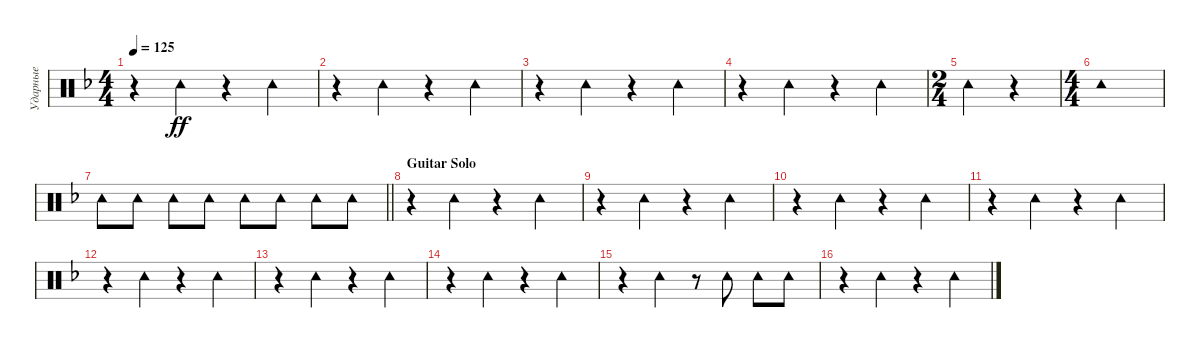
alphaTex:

\track ("Ударные" "Ударные") {instrument percussion}
\staff {score}
\articulation defaults
\ts (4 4)
\tempo 125
\clef neutral
\ks dminor
r.4{dy ff} "Tambourine (hit)".4 r.4 "Tambourine (hit)".4 |
r.4 "Tambourine (hit)".4 r.4 "Tambourine (hit)".4 |
r.4 "Tambourine (hit)".4 r.4 "Tambourine (hit)".4 |
r.4 "Tambourine (hit)".4 r.4 "Tambourine (hit)".4 |
\ts (2 4)
"Tambourine (hit)".4 r.4 |
\ts (4 4)
"Tambourine (hit)".1 |
\barLineRight lightlight "Tambourine (hit)".8 "Tambourine (hit)".8 "Tambourine (hit)".8 "Tambourine (hit)".8 "Tambourine (hit)".8 "Tambourine (hit)".8 "Tambourine (hit)".8 "Tambourine (hit)".8
|
\section ("" "Guitar Solo")
r.4 "Tambourine (hit)".4 r.4 "Tambourine (hit)".4 |
r.4 "Tambourine (hit)".4 r.4 "Tambourine (hit)".4 |
r.4 "Tambourine (hit)".4 r.4 "Tambourine (hit)".4 |
r.4 "Tambourine (hit)".4 r.4 "Tambourine (hit)".4 |
r.4 "Tambourine (hit)".4 r.4 "Tambourine (hit)".4 |
r.4 "Tambourine (hit)".4 r.4 "Tambourine (hit)".4 |
r.4 "Tambourine (hit)".4 r.4 "Tambourine (hit)".4 |
r.4 "Tambourine (hit)".4 r.8 "Tambourine (hit)".8 "Tambourine (hit)".8 "Tambourine (hit)".8 |
r.4 "Tambourine (hit)".4 r.4 "Tambourine (hit)".4
